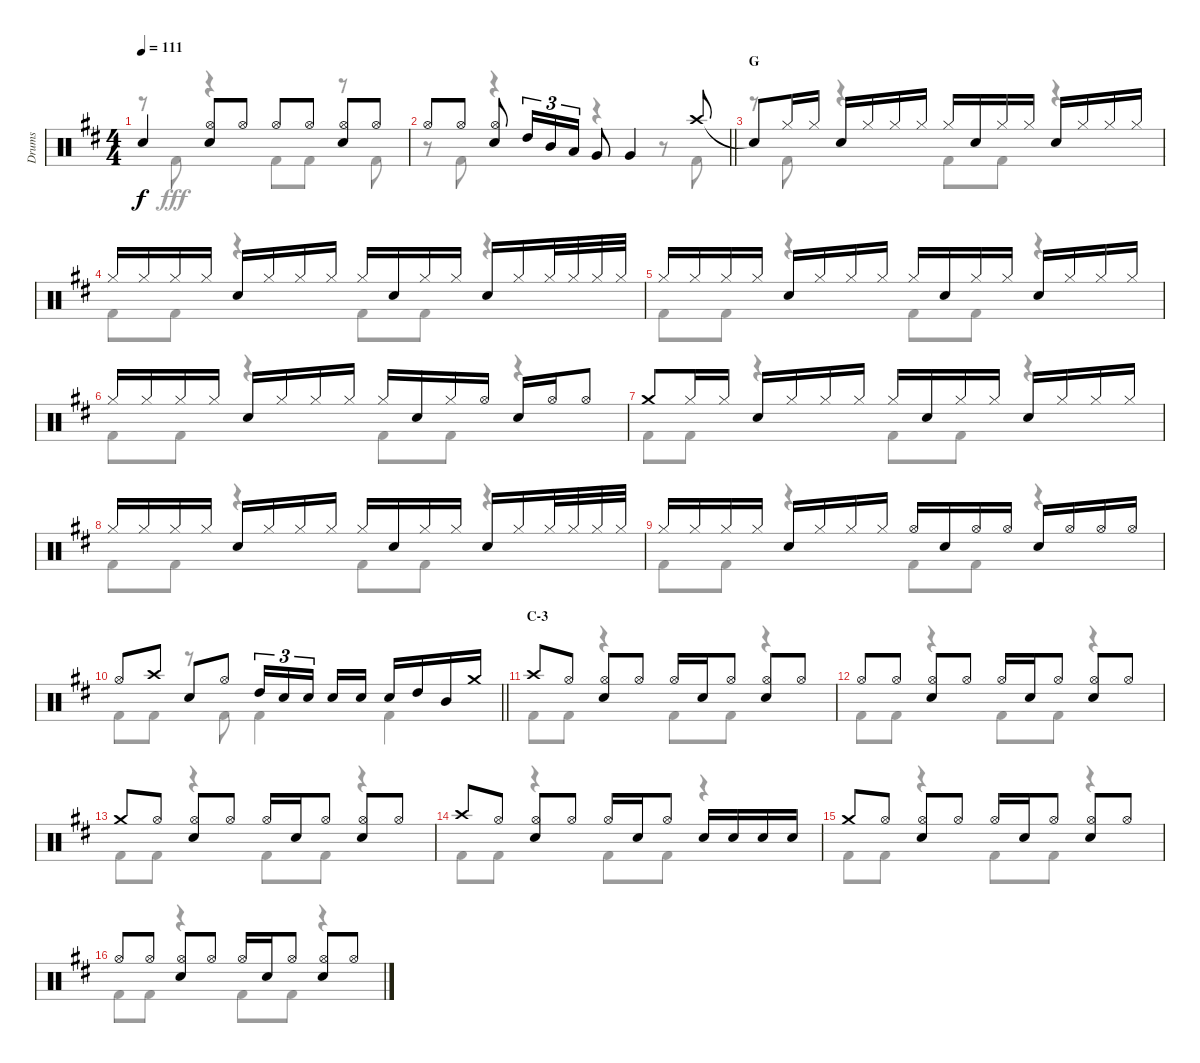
\track ("Drums" "Drums") {instrument percussion}
\staff {score}
\articulation defaults
\voice
\ts (4 4)
\tempo 111
\clef neutral
\ks d "Snare (hit)"{t}.4{dy f}
("Hi-Hat (open)" "Snare (hit) 2").8 "Hi-Hat (open)".8 "Hi-Hat (open)".8 "Hi-Hat (open)".8 ("Hi-Hat (open)" "Snare (hit) 2").8 "Hi-Hat (open)".8 |
\barLineRight lightlight "Hi-Hat (open)".8 "Hi-Hat (open)".8
("Hi-Hat (open)" "Snare (hit) 2").8 "High Tom (hit)".16{tu (3 2)} "Mid Tom (hit)".16{tu (3 2)} "Low Tom (hit)".16{tu (3 2)} "Very Low Tom (hit)".8 "Very Low Tom (hit)".4 "Crash high (hit)".8 |
\section ("" "G")
"Snare (hit)"{t}.8 "Hi-Hat (closed)".16 "Hi-Hat (closed)".16 "Snare (hit) 2".16 "Hi-Hat (closed)".16 "Hi-Hat (closed)".16 "Hi-Hat (closed)".16 "Hi-Hat (closed)".16 "Snare (hit) 2".16 "Hi-Hat (closed)".16 "Hi-Hat (closed)".16 "Snare (hit) 2".16 "Hi-Hat (closed)".16 "Hi-Hat (closed)".16 "Hi-Hat (closed)".16 |
"Hi-Hat (closed)".16 "Hi-Hat (closed)".16 "Hi-Hat (closed)".16 "Hi-Hat (closed)".16 "Snare (hit) 2".16 "Hi-Hat (closed)".16 "Hi-Hat (closed)".16 "Hi-Hat (closed)".16 "Hi-Hat (closed)".16 "Snare (hit) 2".16 "Hi-Hat (closed)".16 "Hi-Hat (closed)".16 "Snare (hit) 2".16 "Hi-Hat (closed)".16 "Hi-Hat (closed)".32 "Hi-Hat (closed)".32 "Hi-Hat (closed)".32 "Hi-Hat (closed)".32 |
"Hi-Hat (closed)".16 "Hi-Hat (closed)".16 "Hi-Hat (closed)".16 "Hi-Hat (closed)".16 "Snare (hit) 2".16 "Hi-Hat (closed)".16 "Hi-Hat (closed)".16 "Hi-Hat (closed)".16 "Hi-Hat (closed)".16 "Snare (hit) 2".16 "Hi-Hat (closed)".16 "Hi-Hat (closed)".16 "Snare (hit) 2".16 "Hi-Hat (closed)".16 "Hi-Hat (closed)".16 "Hi-Hat (closed)".16 |
"Hi-Hat (closed)".16 "Hi-Hat (closed)".16 "Hi-Hat (closed)".16 "Hi-Hat (closed)".16 "Snare (hit) 2".16 "Hi-Hat (closed)".16 "Hi-Hat (closed)".16 "Hi-Hat (closed)".16 "Hi-Hat (closed)".16 "Snare (hit) 2".16 "Hi-Hat (closed)".16 "Hi-Hat (open)".16 "Snare (hit) 2".16 "Hi-Hat (open)".16 "Hi-Hat (open)".8 |
"Crash medium (hit)".8 "Hi-Hat (closed)".16 "Hi-Hat (closed)".16 "Snare (hit) 2".16 "Hi-Hat (closed)".16 "Hi-Hat (closed)".16 "Hi-Hat (closed)".16 "Hi-Hat (closed)".16 "Snare (hit) 2".16 "Hi-Hat (closed)".16 "Hi-Hat (closed)".16 "Snare (hit) 2".16 "Hi-Hat (closed)".16 "Hi-Hat (closed)".16 "Hi-Hat (closed)".16 |
"Hi-Hat (closed)".16 "Hi-Hat (closed)".16 "Hi-Hat (closed)".16 "Hi-Hat (closed)".16 "Snare (hit) 2".16 "Hi-Hat (closed)".16 "Hi-Hat (closed)".16 "Hi-Hat (closed)".16 "Hi-Hat (closed)".16 "Snare (hit) 2".16 "Hi-Hat (closed)".16 "Hi-Hat (closed)".16 "Snare (hit) 2".16 "Hi-Hat (closed)".16 "Hi-Hat (closed)".32 "Hi-Hat (closed)".32 "Hi-Hat (closed)".32 "Hi-Hat (closed)".32 |
"Hi-Hat (closed)".16 "Hi-Hat (closed)".16 "Hi-Hat (closed)".16 "Hi-Hat (closed)".16 "Snare (hit) 2".16 "Hi-Hat (closed)".16 "Hi-Hat (closed)".16 "Hi-Hat (closed)".16 "Hi-Hat (open)".16 "Snare (hit) 2".16 "Hi-Hat (open)".16 "Hi-Hat (open)".16 "Snare (hit) 2".16 "Hi-Hat (open)".16 "Hi-Hat (open)".16 "Hi-Hat (open)".16 |
\barLineRight lightlight "Hi-Hat (open)".8 "Crash high (hit)".8 "Snare (hit) 2".8 "Hi-Hat (open)".8 "High Tom (hit)".16{tu (3 2)} "Snare (hit) 2".16{tu (3 2)} "Snare (hit) 2".16{tu (3 2) beam splitsecondary} "Snare (hit) 2".16 "Snare (hit) 2".16 "Snare (hit) 2".16 "High Tom (hit)".16 "Mid Tom (hit)".16 "Crash medium (hit)".16
|
\section ("" "C-3")
"Crash high (hit)".8 "Hi-Hat (open)".8 ("Hi-Hat (open)" "Snare (hit) 2").8 "Hi-Hat (open)".8 "Hi-Hat (open)".16 "Snare (hit) 2".16 "Hi-Hat (open)".8 ("Hi-Hat (open)" "Snare (hit) 2").8 "Hi-Hat (open)".8 |
"Hi-Hat (open)".8 "Hi-Hat (open)".8 ("Hi-Hat (open)" "Snare (hit) 2").8 "Hi-Hat (open)".8 "Hi-Hat (open)".16 "Snare (hit) 2".16 "Hi-Hat (open)".8 ("Hi-Hat (open)" "Snare (hit) 2").8 "Hi-Hat (open)".8 |
"Crash medium (hit)".8 "Hi-Hat (open)".8 ("Hi-Hat (open)" "Snare (hit) 2").8 "Hi-Hat (open)".8 "Hi-Hat (open)".16 "Snare (hit) 2".16 "Hi-Hat (open)".8 ("Hi-Hat (open)" "Snare (hit) 2").8 "Hi-Hat (open)".8 |
"Crash high (hit)".8 "Hi-Hat (open)".8 ("Hi-Hat (open)" "Snare (hit) 2").8 "Hi-Hat (open)".8 "Hi-Hat (open)".16 "Snare (hit) 2".16 "Hi-Hat (open)".8 "Snare (hit) 2".16 "Snare (hit) 2".16 "Snare (hit) 2".16 "Snare (hit) 2".16 |
"Crash medium (hit)".8 "Hi-Hat (open)".8 ("Hi-Hat (open)" "Snare (hit) 2").8 "Hi-Hat (open)".8 "Hi-Hat (open)".16 "Snare (hit) 2".16 "Hi-Hat (open)".8 ("Hi-Hat (open)" "Snare (hit) 2").8 "Hi-Hat (open)".8 |
"Hi-Hat (open)".8 "Hi-Hat (open)".8 ("Hi-Hat (open)" "Snare (hit) 2").8 "Hi-Hat (open)".8 "Hi-Hat (open)".16 "Snare (hit) 2".16 "Hi-Hat (open)".8 ("Hi-Hat (open)" "Snare (hit) 2").8 "Hi-Hat (open)".8
\voice
\clef neutral
\ottava regular
\simile none
\ks d
r.8{dy fff} "Kick (hit) 2".8 r.4 "Kick (hit) 2".8 "Kick (hit) 2".8 r.8 "Kick (hit) 2".8 |
\barLineRight lightlight
r.8 "Kick (hit) 2".8 r.4 r.4 r.8 "Kick (hit) 2".8 |
r.8 "Kick (hit) 2".8 r.4 "Kick (hit) 2".8 "Kick (hit) 2".8 r.4 |
"Kick (hit) 2".8 "Kick (hit) 2".8 r.4 "Kick (hit) 2".8 "Kick (hit) 2".8 r.4 |
"Kick (hit) 2".8 "Kick (hit) 2".8 r.4 "Kick (hit) 2".8 "Kick (hit) 2".8 r.4 |
"Kick (hit) 2".8 "Kick (hit) 2".8 r.4 "Kick (hit) 2".8 "Kick (hit) 2".8 r.4 |
"Kick (hit) 2".8 "Kick (hit) 2".8 r.4 "Kick (hit) 2".8 "Kick (hit) 2".8 r.4 |
"Kick (hit) 2".8 "Kick (hit) 2".8 r.4 "Kick (hit) 2".8 "Kick (hit) 2".8 r.4 |
"Kick (hit) 2".8 "Kick (hit) 2".8 r.4 "Kick (hit) 2".8 "Kick (hit) 2".8 r.4 |
\barLineRight lightlight "Kick (hit) 2".8 "Kick (hit) 2".8
r.8 "Kick (hit) 2".8 "Kick (hit) 2".4 "Kick (hit) 2".4 |
"Kick (hit) 2".8 "Kick (hit) 2".8 r.4 "Kick (hit) 2".8 "Kick (hit) 2".8 r.4 |
"Kick (hit) 2".8 "Kick (hit) 2".8 r.4 "Kick (hit) 2".8 "Kick (hit) 2".8 r.4 |
"Kick (hit) 2".8 "Kick (hit) 2".8 r.4 "Kick (hit) 2".8 "Kick (hit) 2".8 r.4 |
"Kick (hit) 2".8 "Kick (hit) 2".8 r.4 "Kick (hit) 2".8 "Kick (hit) 2".8 r.4 |
"Kick (hit) 2".8 "Kick (hit) 2".8 r.4 "Kick (hit) 2".8 "Kick (hit) 2".8 r.4 |
"Kick (hit) 2".8 "Kick (hit) 2".8 r.4 "Kick (hit) 2".8 "Kick (hit) 2".8 r.4
